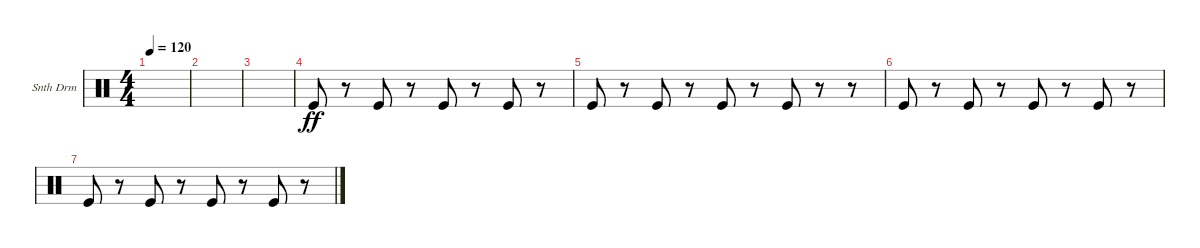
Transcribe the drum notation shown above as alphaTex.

\defaultSystemsLayout 4
\bracketExtendMode groupsimilarinstruments
\firstSystemTrackNameOrientation horizontal
\otherSystemsTrackNameOrientation horizontal
\track ("Synth Drum" "Snth Drm") {instrument percussion}
\staff {score}
\articulation defaults
\ts (4 4)
\tempo 120
\clef neutral
\ks c
|
|
|
"Kick (hit)".8{dy ff} r.8 "Kick (hit)".8 r.8 "Kick (hit)".8 r.8 "Kick (hit)".8 r.8 |
"Kick (hit)".8 r.8 "Kick (hit)".8 r.8 "Kick (hit)".8 r.8 "Kick (hit)".8 r.8 r.8 |
"Kick (hit)".8 r.8 "Kick (hit)".8 r.8 "Kick (hit)".8 r.8 "Kick (hit)".8 r.8 |
"Kick (hit)".8 r.8 "Kick (hit)".8 r.8 "Kick (hit)".8 r.8 "Kick (hit)".8 r.8
